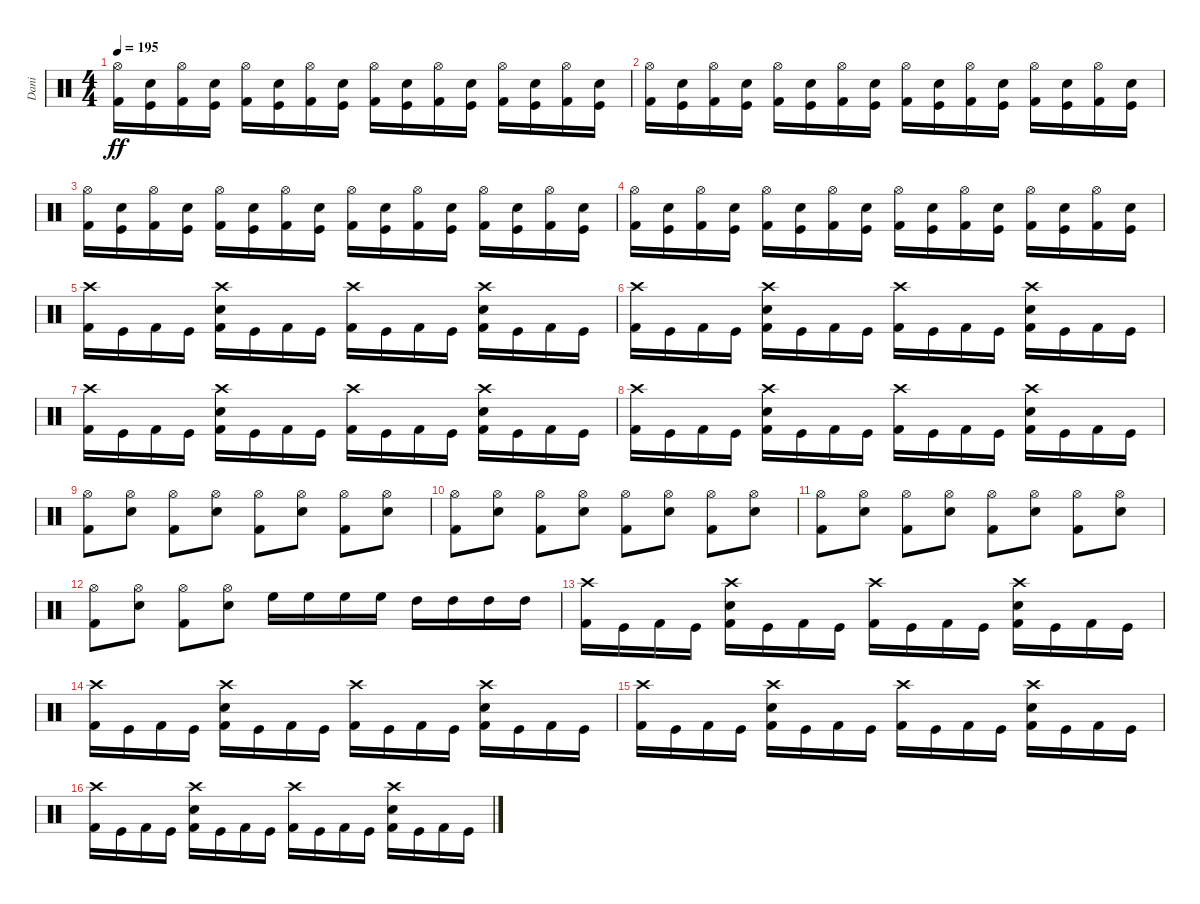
\track ("Dani" "Dani") {instrument percussion}
\staff {score}
\articulation defaults
\ts (4 4)
\tempo 195
\clef neutral
\ks c
("Hi-Hat (open)" "Kick (hit) 2").16{dy ff} ("Electric Snare (hit)" "Kick (hit)").16 ("Hi-Hat (open)" "Kick (hit) 2").16 ("Electric Snare (hit)" "Kick (hit)").16 ("Hi-Hat (open)" "Kick (hit) 2").16 ("Electric Snare (hit)" "Kick (hit)").16 ("Hi-Hat (open)" "Kick (hit) 2").16 ("Electric Snare (hit)" "Kick (hit)").16 ("Hi-Hat (open)" "Kick (hit) 2").16 ("Electric Snare (hit)" "Kick (hit)").16 ("Hi-Hat (open)" "Kick (hit) 2").16 ("Electric Snare (hit)" "Kick (hit)").16 ("Hi-Hat (open)" "Kick (hit) 2").16 ("Electric Snare (hit)" "Kick (hit)").16 ("Hi-Hat (open)" "Kick (hit) 2").16 ("Electric Snare (hit)" "Kick (hit)").16 |
("Hi-Hat (open)" "Kick (hit) 2").16 ("Electric Snare (hit)" "Kick (hit)").16 ("Hi-Hat (open)" "Kick (hit) 2").16 ("Electric Snare (hit)" "Kick (hit)").16 ("Hi-Hat (open)" "Kick (hit) 2").16 ("Electric Snare (hit)" "Kick (hit)").16 ("Hi-Hat (open)" "Kick (hit) 2").16 ("Electric Snare (hit)" "Kick (hit)").16 ("Hi-Hat (open)" "Kick (hit) 2").16 ("Electric Snare (hit)" "Kick (hit)").16 ("Hi-Hat (open)" "Kick (hit) 2").16 ("Electric Snare (hit)" "Kick (hit)").16 ("Hi-Hat (open)" "Kick (hit) 2").16 ("Electric Snare (hit)" "Kick (hit)").16 ("Hi-Hat (open)" "Kick (hit) 2").16 ("Electric Snare (hit)" "Kick (hit)").16 |
("Hi-Hat (open)" "Kick (hit) 2").16 ("Electric Snare (hit)" "Kick (hit)").16 ("Hi-Hat (open)" "Kick (hit) 2").16 ("Electric Snare (hit)" "Kick (hit)").16 ("Hi-Hat (open)" "Kick (hit) 2").16 ("Electric Snare (hit)" "Kick (hit)").16 ("Hi-Hat (open)" "Kick (hit) 2").16 ("Electric Snare (hit)" "Kick (hit)").16 ("Hi-Hat (open)" "Kick (hit) 2").16 ("Electric Snare (hit)" "Kick (hit)").16 ("Hi-Hat (open)" "Kick (hit) 2").16 ("Electric Snare (hit)" "Kick (hit)").16 ("Hi-Hat (open)" "Kick (hit) 2").16 ("Electric Snare (hit)" "Kick (hit)").16 ("Hi-Hat (open)" "Kick (hit) 2").16 ("Electric Snare (hit)" "Kick (hit)").16 |
("Hi-Hat (open)" "Kick (hit) 2").16 ("Electric Snare (hit)" "Kick (hit)").16 ("Hi-Hat (open)" "Kick (hit) 2").16 ("Electric Snare (hit)" "Kick (hit)").16 ("Hi-Hat (open)" "Kick (hit) 2").16 ("Electric Snare (hit)" "Kick (hit)").16 ("Hi-Hat (open)" "Kick (hit) 2").16 ("Electric Snare (hit)" "Kick (hit)").16 ("Hi-Hat (open)" "Kick (hit) 2").16 ("Electric Snare (hit)" "Kick (hit)").16 ("Hi-Hat (open)" "Kick (hit) 2").16 ("Electric Snare (hit)" "Kick (hit)").16 ("Hi-Hat (open)" "Kick (hit) 2").16 ("Electric Snare (hit)" "Kick (hit)").16 ("Hi-Hat (open)" "Kick (hit) 2").16 ("Electric Snare (hit)" "Kick (hit)").16 |
("Crash high (hit)" "Kick (hit) 2").16 "Kick (hit)".16 "Kick (hit) 2".16 "Kick (hit)".16 ("Crash high (hit)" "Electric Snare (hit)" "Kick (hit) 2").16 "Kick (hit)".16 "Kick (hit) 2".16 "Kick (hit)".16 ("Crash high (hit)" "Kick (hit) 2").16 "Kick (hit)".16 "Kick (hit) 2".16 "Kick (hit)".16 ("Crash high (hit)" "Electric Snare (hit)" "Kick (hit) 2").16 "Kick (hit)".16 "Kick (hit) 2".16 "Kick (hit)".16 |
("Crash high (hit)" "Kick (hit) 2").16 "Kick (hit)".16 "Kick (hit) 2".16 "Kick (hit)".16 ("Crash high (hit)" "Electric Snare (hit)" "Kick (hit) 2").16 "Kick (hit)".16 "Kick (hit) 2".16 "Kick (hit)".16 ("Crash high (hit)" "Kick (hit) 2").16 "Kick (hit)".16 "Kick (hit) 2".16 "Kick (hit)".16 ("Crash high (hit)" "Electric Snare (hit)" "Kick (hit) 2").16 "Kick (hit)".16 "Kick (hit) 2".16 "Kick (hit)".16 |
("Crash high (hit)" "Kick (hit) 2").16 "Kick (hit)".16 "Kick (hit) 2".16 "Kick (hit)".16 ("Crash high (hit)" "Electric Snare (hit)" "Kick (hit) 2").16 "Kick (hit)".16 "Kick (hit) 2".16 "Kick (hit)".16 ("Crash high (hit)" "Kick (hit) 2").16 "Kick (hit)".16 "Kick (hit) 2".16 "Kick (hit)".16 ("Crash high (hit)" "Electric Snare (hit)" "Kick (hit) 2").16 "Kick (hit)".16 "Kick (hit) 2".16 "Kick (hit)".16 |
("Crash high (hit)" "Kick (hit) 2").16 "Kick (hit)".16 "Kick (hit) 2".16 "Kick (hit)".16 ("Crash high (hit)" "Electric Snare (hit)" "Kick (hit) 2").16 "Kick (hit)".16 "Kick (hit) 2".16 "Kick (hit)".16 ("Crash high (hit)" "Kick (hit) 2").16 "Kick (hit)".16 "Kick (hit) 2".16 "Kick (hit)".16 ("Crash high (hit)" "Electric Snare (hit)" "Kick (hit) 2").16 "Kick (hit)".16 "Kick (hit) 2".16 "Kick (hit)".16 |
("Hi-Hat (open)" "Kick (hit) 2").8 ("Hi-Hat (open)" "Electric Snare (hit)").8 ("Hi-Hat (open)" "Kick (hit) 2").8 ("Hi-Hat (open)" "Electric Snare (hit)").8 ("Hi-Hat (open)" "Kick (hit) 2").8 ("Hi-Hat (open)" "Electric Snare (hit)").8 ("Hi-Hat (open)" "Kick (hit) 2").8 ("Hi-Hat (open)" "Electric Snare (hit)").8 |
("Hi-Hat (open)" "Kick (hit) 2").8 ("Hi-Hat (open)" "Electric Snare (hit)").8 ("Hi-Hat (open)" "Kick (hit) 2").8 ("Hi-Hat (open)" "Electric Snare (hit)").8 ("Hi-Hat (open)" "Kick (hit) 2").8 ("Hi-Hat (open)" "Electric Snare (hit)").8 ("Hi-Hat (open)" "Kick (hit) 2").8 ("Hi-Hat (open)" "Electric Snare (hit)").8 |
("Hi-Hat (open)" "Kick (hit) 2").8 ("Hi-Hat (open)" "Electric Snare (hit)").8 ("Hi-Hat (open)" "Kick (hit) 2").8 ("Hi-Hat (open)" "Electric Snare (hit)").8 ("Hi-Hat (open)" "Kick (hit) 2").8 ("Hi-Hat (open)" "Electric Snare (hit)").8 ("Hi-Hat (open)" "Kick (hit) 2").8 ("Hi-Hat (open)" "Electric Snare (hit)").8 |
("Hi-Hat (open)" "Kick (hit) 2").8 ("Hi-Hat (open)" "Electric Snare (hit)").8 ("Hi-Hat (open)" "Kick (hit) 2").8 ("Hi-Hat (open)" "Electric Snare (hit)").8 "High Floor Tom (hit)".16 "High Floor Tom (hit)".16 "High Floor Tom (hit)".16 "High Floor Tom (hit)".16 "High Tom (hit)".16 "High Tom (hit)".16 "High Tom (hit)".16 "High Tom (hit)".16 |
("Crash high (hit)" "Kick (hit) 2").16 "Kick (hit)".16 "Kick (hit) 2".16 "Kick (hit)".16 ("Crash high (hit)" "Electric Snare (hit)" "Kick (hit) 2").16 "Kick (hit)".16 "Kick (hit) 2".16 "Kick (hit)".16 ("Crash high (hit)" "Kick (hit) 2").16 "Kick (hit)".16 "Kick (hit) 2".16 "Kick (hit)".16 ("Crash high (hit)" "Electric Snare (hit)" "Kick (hit) 2").16 "Kick (hit)".16 "Kick (hit) 2".16 "Kick (hit)".16 |
("Crash high (hit)" "Kick (hit) 2").16 "Kick (hit)".16 "Kick (hit) 2".16 "Kick (hit)".16 ("Crash high (hit)" "Electric Snare (hit)" "Kick (hit) 2").16 "Kick (hit)".16 "Kick (hit) 2".16 "Kick (hit)".16 ("Crash high (hit)" "Kick (hit) 2").16 "Kick (hit)".16 "Kick (hit) 2".16 "Kick (hit)".16 ("Crash high (hit)" "Electric Snare (hit)" "Kick (hit) 2").16 "Kick (hit)".16 "Kick (hit) 2".16 "Kick (hit)".16 |
("Crash high (hit)" "Kick (hit) 2").16 "Kick (hit)".16 "Kick (hit) 2".16 "Kick (hit)".16 ("Crash high (hit)" "Electric Snare (hit)" "Kick (hit) 2").16 "Kick (hit)".16 "Kick (hit) 2".16 "Kick (hit)".16 ("Crash high (hit)" "Kick (hit) 2").16 "Kick (hit)".16 "Kick (hit) 2".16 "Kick (hit)".16 ("Crash high (hit)" "Electric Snare (hit)" "Kick (hit) 2").16 "Kick (hit)".16 "Kick (hit) 2".16 "Kick (hit)".16 |
("Crash high (hit)" "Kick (hit) 2").16 "Kick (hit)".16 "Kick (hit) 2".16 "Kick (hit)".16 ("Crash high (hit)" "Electric Snare (hit)" "Kick (hit) 2").16 "Kick (hit)".16 "Kick (hit) 2".16 "Kick (hit)".16 ("Crash high (hit)" "Kick (hit) 2").16 "Kick (hit)".16 "Kick (hit) 2".16 "Kick (hit)".16 ("Crash high (hit)" "Electric Snare (hit)" "Kick (hit) 2").16 "Kick (hit)".16 "Kick (hit) 2".16 "Kick (hit)".16
